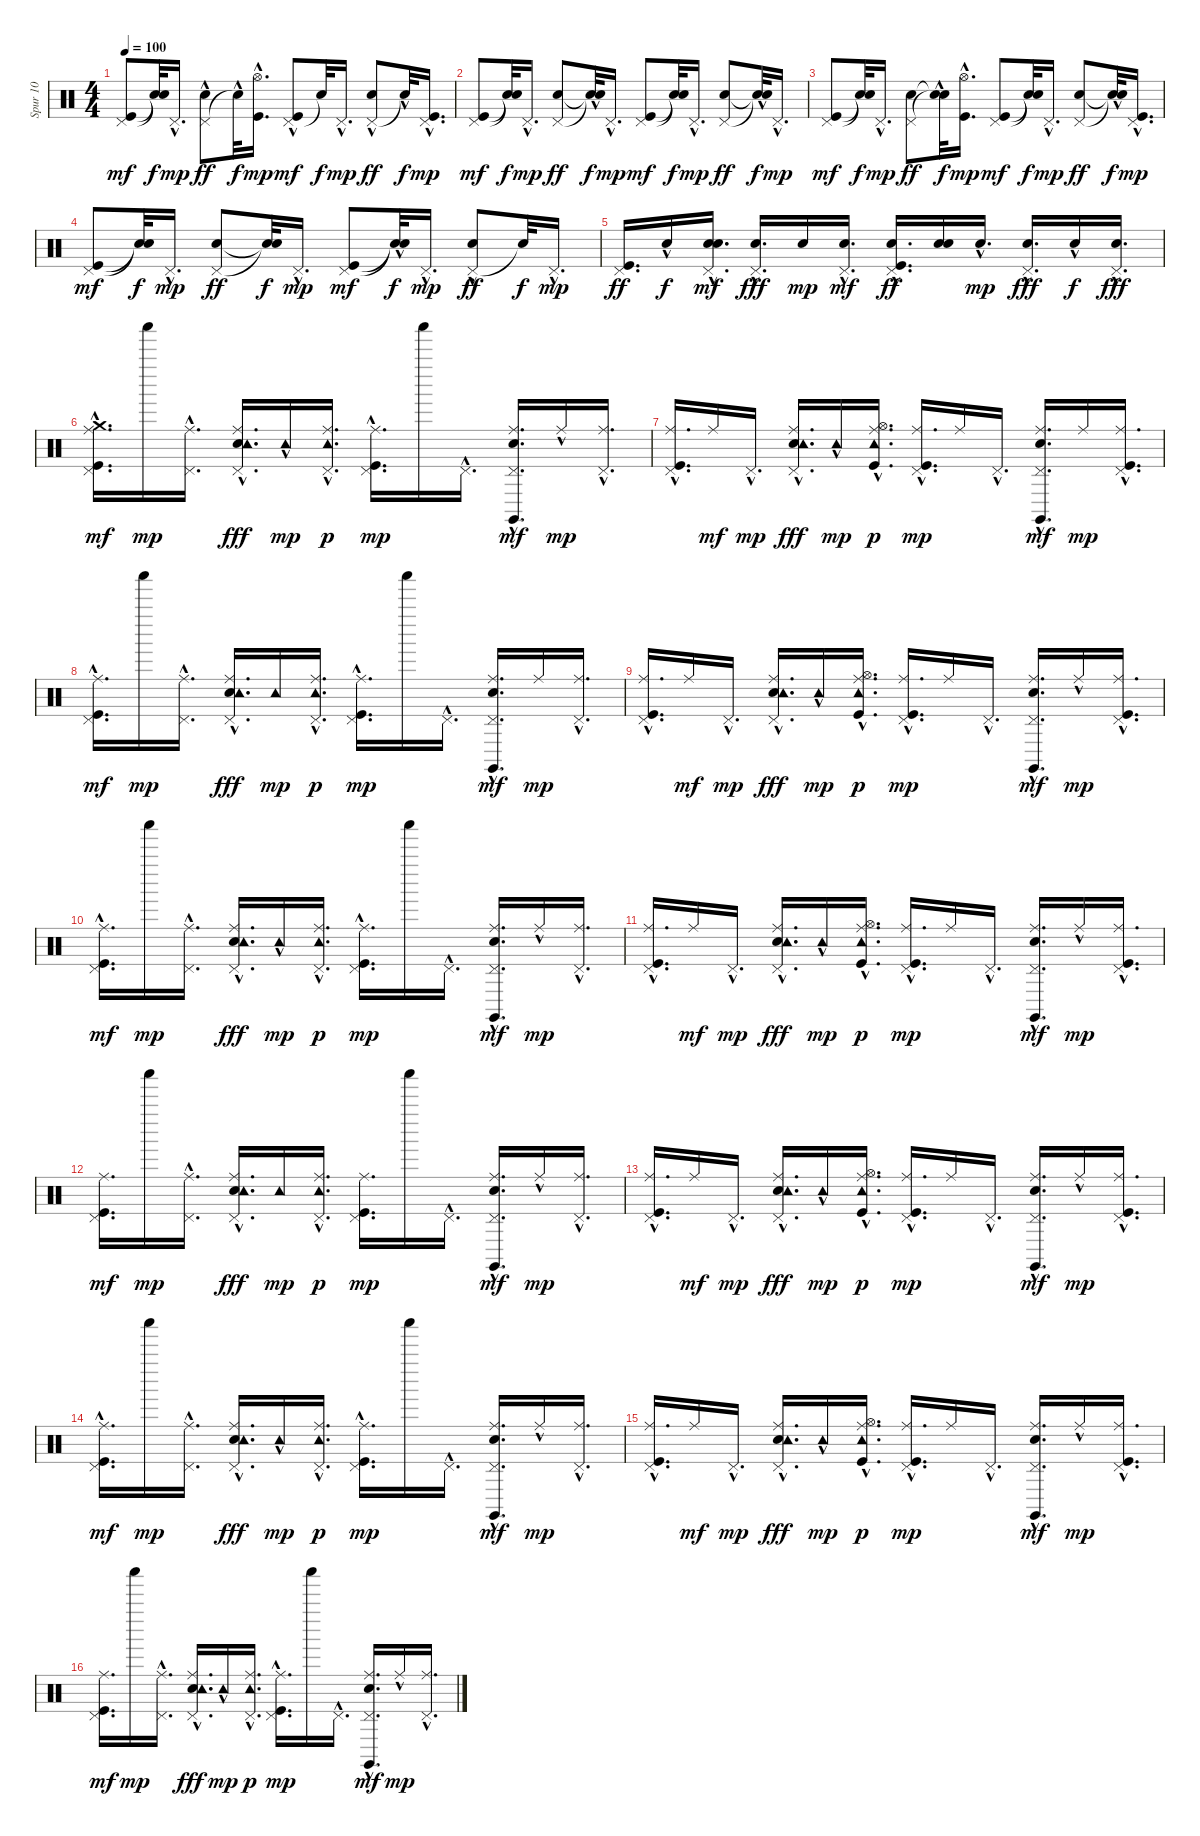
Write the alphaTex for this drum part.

\track ("Spur 10" "Spur 10") {instrument percussion}
\staff {score}
\articulation defaults
\ts (4 4)
\tempo 100
\clef neutral
\ks c
("Pedal Hi-Hat (hit)" "Kick (hit)").8{dy mf} ("Snare (hit)"{t} "Snare (hit)"{t}).32{dy f} "Pedal Hi-Hat (hit)"{hac}.16{d dy mp} ("Pedal Hi-Hat (hit)"{hac} "Hand Clap (hit)").8{dy ff} "Snare (hit)"{hac t}.32{dy f} ("Hi-Hat (open)" "Kick (hit)"{hac}).16{d dy mp} ("Pedal Hi-Hat (hit)"{hac} "Kick (hit)").8{dy mf} "Snare (hit)"{t}.32{dy f} "Pedal Hi-Hat (hit)"{hac}.16{d dy mp} ("Pedal Hi-Hat (hit)"{hac} "Hand Clap (hit)").8{dy ff} "Snare (hit)"{hac t}.32{dy f} ("Pedal Hi-Hat (hit)"{hac} "Kick (hit)"{hac}).16{d dy mp} |
("Pedal Hi-Hat (hit)" "Kick (hit)").8{dy mf} ("Snare (hit)"{t} "Snare (hit)"{t}).32{dy f} "Pedal Hi-Hat (hit)"{hac}.16{d dy mp} ("Pedal Hi-Hat (hit)" "Hand Clap (hit)").8{dy ff} ("Snare (hit)"{t} "Snare (hit)"{hac t}).32{dy f} "Pedal Hi-Hat (hit)"{hac}.16{d dy mp} ("Pedal Hi-Hat (hit)" "Kick (hit)").8{dy mf} ("Snare (hit)"{t} "Snare (hit)"{t}).32{dy f} "Pedal Hi-Hat (hit)"{hac}.16{d dy mp} ("Pedal Hi-Hat (hit)" "Hand Clap (hit)").8{dy ff} ("Snare (hit)"{t} "Snare (hit)"{hac t}).32{dy f} "Pedal Hi-Hat (hit)"{hac}.16{d dy mp} |
("Pedal Hi-Hat (hit)" "Kick (hit)").8{dy mf} ("Snare (hit)"{t} "Snare (hit)"{t}).32{dy f} "Pedal Hi-Hat (hit)"{hac}.16{d dy mp} ("Pedal Hi-Hat (hit)" "Hand Clap (hit)").8{dy ff} ("Snare (hit)"{t} "Snare (hit)"{hac t}).32{dy f} ("Hi-Hat (open)"{hac} "Kick (hit)"{hac}).16{d dy mp} ("Pedal Hi-Hat (hit)" "Kick (hit)").8{dy mf} ("Snare (hit)"{t} "Snare (hit)"{t}).32{dy f} "Pedal Hi-Hat (hit)"{hac}.16{d dy mp} ("Pedal Hi-Hat (hit)" "Hand Clap (hit)").8{dy ff} ("Snare (hit)"{t} "Snare (hit)"{hac t}).32{dy f} ("Pedal Hi-Hat (hit)"{hac} "Kick (hit)"{hac}).16{d dy mp} |
("Pedal Hi-Hat (hit)" "Kick (hit)").8{dy mf} ("Snare (hit)"{t} "Snare (hit)"{t}).32{dy f} "Pedal Hi-Hat (hit)"{hac}.16{d dy mp} ("Pedal Hi-Hat (hit)" "Hand Clap (hit)").8{dy ff} ("Snare (hit)"{t} "Snare (hit)"{t}).32{dy f} "Pedal Hi-Hat (hit)"{hac}.16{d dy mp} ("Pedal Hi-Hat (hit)" "Kick (hit)").8{dy mf} ("Snare (hit)"{t} "Snare (hit)"{hac t}).32{dy f} "Pedal Hi-Hat (hit)"{hac}.16{d dy mp} ("Pedal Hi-Hat (hit)" "Hand Clap (hit)"{hac}).8{dy ff} "Snare (hit)"{t}.32{dy f} "Pedal Hi-Hat (hit)"{hac}.16{d dy mp} |
("Pedal Hi-Hat (hit)" "Kick (hit)").16{d dy ff} "Hand Clap (hit)"{hac}.16{dy f} ("Snare (hit) 2" "Hand Clap (hit)"{hac} "Pedal Hi-Hat (hit)"{hac}).16{d dy mf} ("Pedal Hi-Hat (hit)"{hac} "Hand Clap (hit)"{hac}).16{d dy fff} "Hand Clap (hit)".16{dy mp} ("Hand Clap (hit)" "Pedal Hi-Hat (hit)"{hac}).16{d dy mf} ("Snare (hit) 2"{hac} "Pedal Hi-Hat (hit)"{hac} "Kick (hit)").16{d dy ff} ("Snare (hit) 2" "Hand Clap (hit)").16 "Hand Clap (hit)"{hac}.16{d dy mp} ("Pedal Hi-Hat (hit)" "Hand Clap (hit)"{hac}).16{d dy fff} "Hand Clap (hit)"{hac}.16{dy f} ("Pedal Hi-Hat (hit)"{hac} "Hand Clap (hit)"{hac}).16{d dy fff} |
("Crash medium (hit)" "Ride (middle)"{hac} "Pedal Hi-Hat (hit)"{hac} "Kick (hit)").16{d dy mf} "Shaker (hit)".16{dy mp} ("Pedal Hi-Hat (hit)"{hac} "Ride (middle)"{hac}).16{d} ("Pedal Hi-Hat (hit)"{hac} "Hand Clap (hit)"{hac} "Ride (middle)"{hac} "Tambourine (hit)"{hac}).16{d dy fff} "Tambourine (hit)"{hac}.16{dy mp} ("Pedal Hi-Hat (hit)"{hac} "Ride (middle)"{hac} "Tambourine (hit)"{hac}).16{d dy p} ("Pedal Hi-Hat (hit)"{hac} "Kick (hit)"{hac} "Ride (middle)"{hac}).16{d dy mp} "Shaker (hit)".16 "Pedal Hi-Hat (hit)"{hac}.16{d} ("Pedal Hi-Hat (hit)" "Hand Clap (hit)"{hac} "Ride (middle)"{hac} "Claves (hit)").16{d dy mf} "Ride (middle)"{hac}.16{dy mp} ("Pedal Hi-Hat (hit)"{hac} "Ride (middle)"{hac}).16{d} |
("Pedal Hi-Hat (hit)" "Kick (hit)"{hac} "Ride (middle)"{hac}).16{d} "Ride (middle)".16{dy mf} "Pedal Hi-Hat (hit)"{hac}.16{d dy mp} ("Pedal Hi-Hat (hit)"{hac} "Hand Clap (hit)"{hac} "Ride (middle)"{hac} "Tambourine (hit)"{hac}).16{d dy fff} "Tambourine (hit)"{hac}.16{dy mp} ("Hi-Hat (open)"{hac} "Kick (hit)"{hac} "Ride (middle)"{hac} "Tambourine (hit)"{hac}).16{d dy p} ("Pedal Hi-Hat (hit)" "Kick (hit)"{hac} "Ride (middle)"{hac}).16{d dy mp} "Ride (middle)".16 "Pedal Hi-Hat (hit)"{hac}.16{d} ("Pedal Hi-Hat (hit)"{hac} "Hand Clap (hit)"{hac} "Ride (middle)"{hac} "Claves (hit)").16{d dy mf} "Ride (middle)".16{dy mp} ("Pedal Hi-Hat (hit)"{hac} "Kick (hit)"{hac} "Ride (middle)"{hac}).16{d} |
("Ride (middle)" "Pedal Hi-Hat (hit)"{hac} "Kick (hit)"{hac}).16{d dy mf} "Shaker (hit)".16{dy mp} ("Pedal Hi-Hat (hit)"{hac} "Ride (middle)"{hac}).16{d} ("Pedal Hi-Hat (hit)"{hac} "Hand Clap (hit)" "Ride (middle)"{hac} "Tambourine (hit)"{hac}).16{d dy fff} "Tambourine (hit)".16{dy mp} ("Pedal Hi-Hat (hit)"{hac} "Ride (middle)"{hac} "Tambourine (hit)"{hac}).16{d dy p} ("Pedal Hi-Hat (hit)" "Kick (hit)"{hac} "Ride (middle)").16{d dy mp} "Shaker (hit)".16 "Pedal Hi-Hat (hit)"{hac}.16{d} ("Pedal Hi-Hat (hit)"{hac} "Hand Clap (hit)"{hac} "Ride (middle)"{hac} "Claves (hit)").16{d dy mf} "Ride (middle)".16{dy mp} ("Pedal Hi-Hat (hit)"{hac} "Ride (middle)"{hac}).16{d} |
("Pedal Hi-Hat (hit)" "Kick (hit)"{hac} "Ride (middle)"{hac}).16{d} "Ride (middle)".16{dy mf} "Pedal Hi-Hat (hit)"{hac}.16{d dy mp} ("Pedal Hi-Hat (hit)"{hac} "Hand Clap (hit)" "Ride (middle)" "Tambourine (hit)"{hac}).16{d dy fff} "Tambourine (hit)"{hac}.16{dy mp} ("Hi-Hat (open)" "Kick (hit)"{hac} "Ride (middle)"{hac} "Tambourine (hit)"{hac}).16{d dy p} ("Pedal Hi-Hat (hit)" "Kick (hit)"{hac} "Ride (middle)"{hac}).16{d dy mp} "Ride (middle)".16 "Pedal Hi-Hat (hit)"{hac}.16{d} ("Pedal Hi-Hat (hit)"{hac} "Hand Clap (hit)" "Ride (middle)"{hac} "Claves (hit)").16{d dy mf} "Ride (middle)"{hac}.16{dy mp} ("Pedal Hi-Hat (hit)"{hac} "Kick (hit)"{hac} "Ride (middle)"{hac}).16{d} |
("Ride (middle)" "Pedal Hi-Hat (hit)"{hac} "Kick (hit)").16{d dy mf} "Shaker (hit)".16{dy mp} ("Pedal Hi-Hat (hit)"{hac} "Ride (middle)"{hac}).16{d} ("Pedal Hi-Hat (hit)"{hac} "Hand Clap (hit)" "Ride (middle)" "Tambourine (hit)"{hac}).16{d dy fff} "Tambourine (hit)"{hac}.16{dy mp} ("Pedal Hi-Hat (hit)"{hac} "Ride (middle)"{hac} "Tambourine (hit)"{hac}).16{d dy p} ("Pedal Hi-Hat (hit)"{hac} "Kick (hit)" "Ride (middle)").16{d dy mp} "Shaker (hit)".16 "Pedal Hi-Hat (hit)"{hac}.16{d} ("Pedal Hi-Hat (hit)"{hac} "Hand Clap (hit)" "Ride (middle)"{hac} "Claves (hit)").16{d dy mf} "Ride (middle)"{hac}.16{dy mp} ("Pedal Hi-Hat (hit)"{hac} "Ride (middle)"{hac}).16{d} |
("Pedal Hi-Hat (hit)"{hac} "Kick (hit)"{hac} "Ride (middle)"{hac}).16{d} "Ride (middle)".16{dy mf} "Pedal Hi-Hat (hit)"{hac}.16{d dy mp} ("Pedal Hi-Hat (hit)" "Hand Clap (hit)" "Ride (middle)" "Tambourine (hit)"{hac}).16{d dy fff} "Tambourine (hit)"{hac}.16{dy mp} ("Hi-Hat (open)" "Kick (hit)"{hac} "Ride (middle)"{hac} "Tambourine (hit)"{hac}).16{d dy p} ("Pedal Hi-Hat (hit)" "Kick (hit)"{hac} "Ride (middle)"{hac}).16{d dy mp} "Ride (middle)".16 "Pedal Hi-Hat (hit)"{hac}.16{d} ("Pedal Hi-Hat (hit)" "Hand Clap (hit)" "Ride (middle)"{hac} "Claves (hit)").16{d dy mf} "Ride (middle)"{hac}.16{dy mp} ("Pedal Hi-Hat (hit)"{hac} "Kick (hit)"{hac} "Ride (middle)"{hac}).16{d} |
("Ride (middle)" "Pedal Hi-Hat (hit)" "Kick (hit)").16{d dy mf} "Shaker (hit)".16{dy mp} ("Pedal Hi-Hat (hit)"{hac} "Ride (middle)"{hac}).16{d} ("Pedal Hi-Hat (hit)"{hac} "Hand Clap (hit)" "Ride (middle)"{hac} "Tambourine (hit)"{hac}).16{d dy fff} "Tambourine (hit)".16{dy mp} ("Pedal Hi-Hat (hit)"{hac} "Ride (middle)"{hac} "Tambourine (hit)"{hac}).16{d dy p} ("Pedal Hi-Hat (hit)" "Kick (hit)" "Ride (middle)").16{d dy mp} "Shaker (hit)".16 "Pedal Hi-Hat (hit)"{hac}.16{d} ("Pedal Hi-Hat (hit)" "Hand Clap (hit)" "Ride (middle)"{hac} "Claves (hit)"{hac}).16{d dy mf} "Ride (middle)"{hac}.16{dy mp} ("Pedal Hi-Hat (hit)"{hac} "Ride (middle)"{hac}).16{d} |
("Pedal Hi-Hat (hit)" "Kick (hit)"{hac} "Ride (middle)"{hac}).16{d} "Ride (middle)".16{dy mf} "Pedal Hi-Hat (hit)"{hac}.16{d dy mp} ("Pedal Hi-Hat (hit)" "Hand Clap (hit)"{hac} "Ride (middle)" "Tambourine (hit)"{hac}).16{d dy fff} "Tambourine (hit)"{hac}.16{dy mp} ("Hi-Hat (open)"{hac} "Kick (hit)"{hac} "Ride (middle)"{hac} "Tambourine (hit)"{hac}).16{d dy p} ("Pedal Hi-Hat (hit)" "Kick (hit)"{hac} "Ride (middle)"{hac}).16{d dy mp} "Ride (middle)".16 "Pedal Hi-Hat (hit)"{hac}.16{d} ("Pedal Hi-Hat (hit)" "Hand Clap (hit)" "Ride (middle)"{hac} "Claves (hit)").16{d dy mf} "Ride (middle)"{hac}.16{dy mp} ("Pedal Hi-Hat (hit)"{hac} "Kick (hit)"{hac} "Ride (middle)"{hac}).16{d} |
("Ride (middle)" "Pedal Hi-Hat (hit)"{hac} "Kick (hit)"{hac}).16{d dy mf} "Shaker (hit)".16{dy mp} ("Pedal Hi-Hat (hit)"{hac} "Ride (middle)"{hac}).16{d} ("Pedal Hi-Hat (hit)" "Hand Clap (hit)" "Ride (middle)" "Tambourine (hit)"{hac}).16{d dy fff} "Tambourine (hit)"{hac}.16{dy mp} ("Pedal Hi-Hat (hit)"{hac} "Ride (middle)"{hac} "Tambourine (hit)"{hac}).16{d dy p} ("Pedal Hi-Hat (hit)" "Kick (hit)" "Ride (middle)"{hac}).16{d dy mp} "Shaker (hit)".16 "Pedal Hi-Hat (hit)"{hac}.16{d} ("Pedal Hi-Hat (hit)"{hac} "Hand Clap (hit)" "Ride (middle)"{hac} "Claves (hit)"{hac}).16{d dy mf} "Ride (middle)"{hac}.16{dy mp} ("Pedal Hi-Hat (hit)"{hac} "Ride (middle)"{hac}).16{d} |
("Pedal Hi-Hat (hit)"{hac} "Kick (hit)"{hac} "Ride (middle)"{hac}).16{d} "Ride (middle)".16{dy mf} "Pedal Hi-Hat (hit)"{hac}.16{d dy mp} ("Pedal Hi-Hat (hit)" "Hand Clap (hit)" "Ride (middle)"{hac} "Tambourine (hit)"{hac}).16{d dy fff} "Tambourine (hit)"{hac}.16{dy mp} ("Hi-Hat (open)"{hac} "Kick (hit)"{hac} "Ride (middle)"{hac} "Tambourine (hit)"{hac}).16{d dy p} ("Pedal Hi-Hat (hit)" "Kick (hit)"{hac} "Ride (middle)"{hac}).16{d dy mp} "Ride (middle)".16 "Pedal Hi-Hat (hit)"{hac}.16{d} ("Pedal Hi-Hat (hit)" "Hand Clap (hit)" "Ride (middle)"{hac} "Claves (hit)"{hac}).16{d dy mf} "Ride (middle)"{hac}.16{dy mp} ("Pedal Hi-Hat (hit)"{hac} "Kick (hit)"{hac} "Ride (middle)"{hac}).16{d} |
("Ride (middle)" "Pedal Hi-Hat (hit)" "Kick (hit)").16{d dy mf} "Shaker (hit)".16{dy mp} ("Pedal Hi-Hat (hit)"{hac} "Ride (middle)"{hac}).16{d} ("Pedal Hi-Hat (hit)" "Hand Clap (hit)" "Ride (middle)" "Tambourine (hit)"{hac}).16{d dy fff} "Tambourine (hit)"{hac}.16{dy mp} ("Pedal Hi-Hat (hit)"{hac} "Ride (middle)"{hac} "Tambourine (hit)"{hac}).16{d dy p} ("Pedal Hi-Hat (hit)" "Kick (hit)"{hac} "Ride (middle)"{hac}).16{d dy mp} "Shaker (hit)".16 "Pedal Hi-Hat (hit)"{hac}.16{d} ("Pedal Hi-Hat (hit)" "Hand Clap (hit)" "Ride (middle)"{hac} "Claves (hit)").16{d dy mf} "Ride (middle)"{hac}.16{dy mp} ("Pedal Hi-Hat (hit)"{hac} "Ride (middle)"{hac}).16{d}
